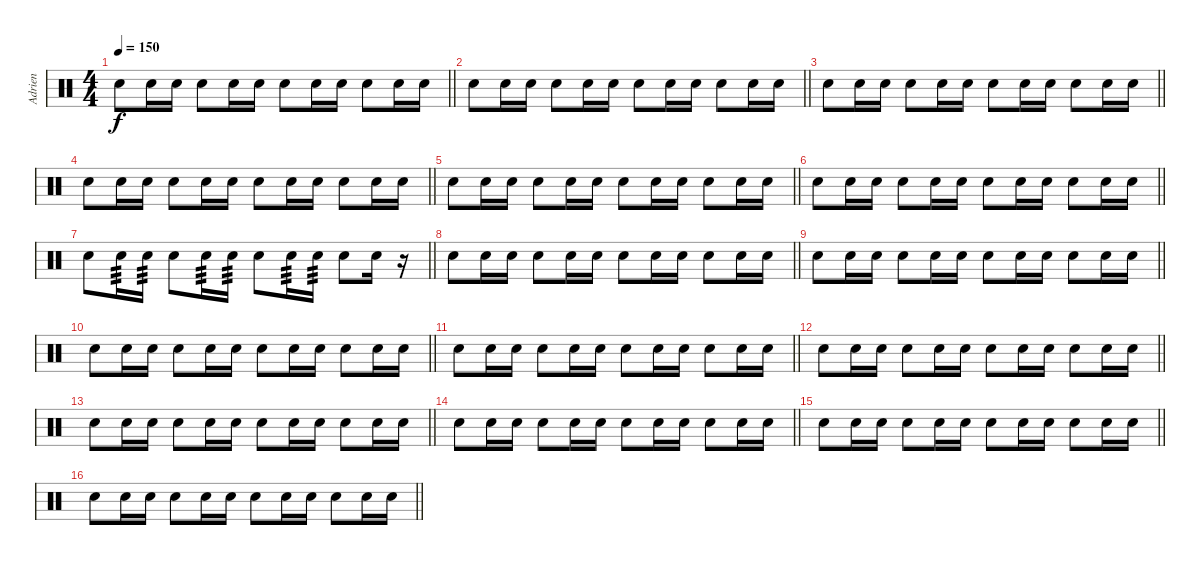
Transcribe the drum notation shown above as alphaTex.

\track ("Adrien" "Adrien") {instrument percussion}
\staff {score}
\articulation defaults
\ts (4 4)
\tempo 150
\clef neutral
\barLineRight lightlight
\ks c "Snare (hit) 2".8{dy f} "Electric Snare (hit)".16 "Electric Snare (hit)".16 "Snare (hit) 2".8 "Electric Snare (hit)".16 "Electric Snare (hit)".16 "Snare (hit) 2".8 "Electric Snare (hit)".16 "Electric Snare (hit)".16 "Snare (hit) 2".8 "Electric Snare (hit)".16 "Electric Snare (hit)".16
|
\barLineRight lightlight "Snare (hit) 2".8 "Electric Snare (hit)".16 "Electric Snare (hit)".16 "Snare (hit) 2".8 "Electric Snare (hit)".16 "Electric Snare (hit)".16 "Snare (hit) 2".8 "Electric Snare (hit)".16 "Electric Snare (hit)".16 "Snare (hit) 2".8 "Electric Snare (hit)".16 "Electric Snare (hit)".16
|
\barLineRight lightlight "Snare (hit) 2".8 "Electric Snare (hit)".16 "Electric Snare (hit)".16 "Snare (hit) 2".8 "Electric Snare (hit)".16 "Electric Snare (hit)".16 "Snare (hit) 2".8 "Electric Snare (hit)".16 "Electric Snare (hit)".16 "Snare (hit) 2".8 "Electric Snare (hit)".16 "Electric Snare (hit)".16
|
\barLineRight lightlight "Snare (hit) 2".8 "Electric Snare (hit)".16 "Electric Snare (hit)".16 "Snare (hit) 2".8 "Electric Snare (hit)".16 "Electric Snare (hit)".16 "Snare (hit) 2".8 "Electric Snare (hit)".16 "Electric Snare (hit)".16 "Snare (hit) 2".8 "Electric Snare (hit)".16 "Electric Snare (hit)".16
|
\barLineRight lightlight "Snare (hit) 2".8 "Electric Snare (hit)".16 "Electric Snare (hit)".16 "Snare (hit) 2".8 "Electric Snare (hit)".16 "Electric Snare (hit)".16 "Snare (hit) 2".8 "Electric Snare (hit)".16 "Electric Snare (hit)".16 "Snare (hit) 2".8 "Electric Snare (hit)".16 "Electric Snare (hit)".16
|
\barLineRight lightlight "Snare (hit) 2".8 "Electric Snare (hit)".16 "Electric Snare (hit)".16 "Snare (hit) 2".8 "Electric Snare (hit)".16 "Electric Snare (hit)".16 "Snare (hit) 2".8 "Electric Snare (hit)".16 "Electric Snare (hit)".16 "Snare (hit) 2".8 "Electric Snare (hit)".16 "Electric Snare (hit)".16
|
\barLineRight lightlight "Snare (hit) 2".8 "Electric Snare (hit)".16{tp 3} "Electric Snare (hit)".16{tp 3} "Snare (hit) 2".8 "Electric Snare (hit)".16{tp 3} "Electric Snare (hit)".16{tp 3} "Snare (hit) 2".8 "Electric Snare (hit)".16{tp 3} "Electric Snare (hit)".16{tp 3} "Snare (hit) 2".8 "Electric Snare (hit)".16
r.16 |
\barLineRight lightlight "Snare (hit) 2".8 "Electric Snare (hit)".16 "Electric Snare (hit)".16 "Snare (hit) 2".8 "Electric Snare (hit)".16 "Electric Snare (hit)".16 "Snare (hit) 2".8 "Electric Snare (hit)".16 "Electric Snare (hit)".16 "Snare (hit) 2".8 "Electric Snare (hit)".16 "Electric Snare (hit)".16
|
\barLineRight lightlight "Snare (hit) 2".8 "Electric Snare (hit)".16 "Electric Snare (hit)".16 "Snare (hit) 2".8 "Electric Snare (hit)".16 "Electric Snare (hit)".16 "Snare (hit) 2".8 "Electric Snare (hit)".16 "Electric Snare (hit)".16 "Snare (hit) 2".8 "Electric Snare (hit)".16 "Electric Snare (hit)".16
|
\barLineRight lightlight "Snare (hit) 2".8 "Electric Snare (hit)".16 "Electric Snare (hit)".16 "Snare (hit) 2".8 "Electric Snare (hit)".16 "Electric Snare (hit)".16 "Snare (hit) 2".8 "Electric Snare (hit)".16 "Electric Snare (hit)".16 "Snare (hit) 2".8 "Electric Snare (hit)".16 "Electric Snare (hit)".16
|
\barLineRight lightlight "Snare (hit) 2".8 "Electric Snare (hit)".16 "Electric Snare (hit)".16 "Snare (hit) 2".8 "Electric Snare (hit)".16 "Electric Snare (hit)".16 "Snare (hit) 2".8 "Electric Snare (hit)".16 "Electric Snare (hit)".16 "Snare (hit) 2".8 "Electric Snare (hit)".16 "Electric Snare (hit)".16
|
\barLineRight lightlight "Snare (hit) 2".8 "Electric Snare (hit)".16 "Electric Snare (hit)".16 "Snare (hit) 2".8 "Electric Snare (hit)".16 "Electric Snare (hit)".16 "Snare (hit) 2".8 "Electric Snare (hit)".16 "Electric Snare (hit)".16 "Snare (hit) 2".8 "Electric Snare (hit)".16 "Electric Snare (hit)".16
|
\barLineRight lightlight "Snare (hit) 2".8 "Electric Snare (hit)".16 "Electric Snare (hit)".16 "Snare (hit) 2".8 "Electric Snare (hit)".16 "Electric Snare (hit)".16 "Snare (hit) 2".8 "Electric Snare (hit)".16 "Electric Snare (hit)".16 "Snare (hit) 2".8 "Electric Snare (hit)".16 "Electric Snare (hit)".16
|
\barLineRight lightlight "Snare (hit) 2".8 "Electric Snare (hit)".16 "Electric Snare (hit)".16 "Snare (hit) 2".8 "Electric Snare (hit)".16 "Electric Snare (hit)".16 "Snare (hit) 2".8 "Electric Snare (hit)".16 "Electric Snare (hit)".16 "Snare (hit) 2".8 "Electric Snare (hit)".16 "Electric Snare (hit)".16
|
\barLineRight lightlight "Snare (hit) 2".8 "Electric Snare (hit)".16 "Electric Snare (hit)".16 "Snare (hit) 2".8 "Electric Snare (hit)".16 "Electric Snare (hit)".16 "Snare (hit) 2".8 "Electric Snare (hit)".16 "Electric Snare (hit)".16 "Snare (hit) 2".8 "Electric Snare (hit)".16 "Electric Snare (hit)".16
|
\barLineRight lightlight "Snare (hit) 2".8 "Electric Snare (hit)".16 "Electric Snare (hit)".16 "Snare (hit) 2".8 "Electric Snare (hit)".16 "Electric Snare (hit)".16 "Snare (hit) 2".8 "Electric Snare (hit)".16 "Electric Snare (hit)".16 "Snare (hit) 2".8 "Electric Snare (hit)".16 "Electric Snare (hit)".16
